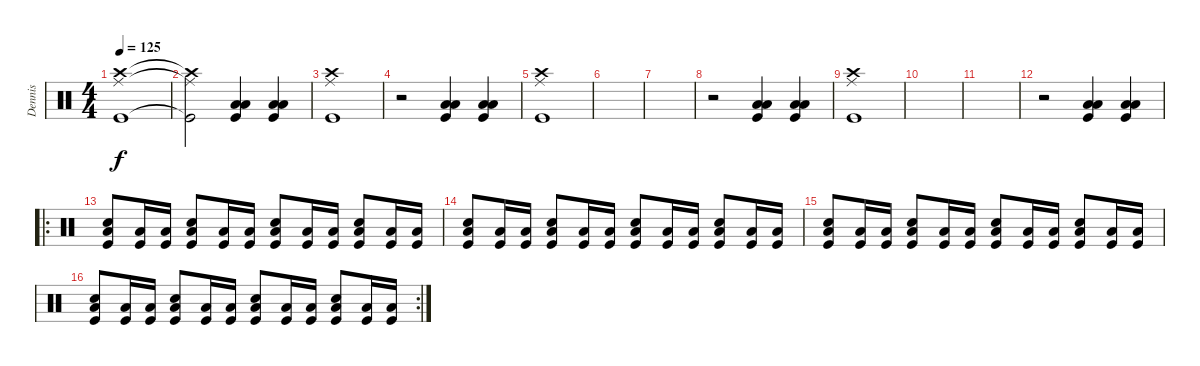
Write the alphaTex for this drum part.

\track ("Dennis" "Dennis") {instrument percussion}
\staff {score}
\articulation defaults
\ts (4 4)
\tempo 125
\clef neutral
\ks c
("Kick (hit)" "Crash high (hit)" "Ride (middle)").1{dy f} |
("Kick (hit)"{t} "Crash high (hit)"{t} "Ride (middle)"{t}).2 ("Kick (hit)" "Low Floor Tom (hit)" "Low Tom (hit)").4 ("Kick (hit)" "Low Floor Tom (hit)" "Low Tom (hit)").4 |
("Kick (hit)" "Crash high (hit)" "Ride (middle)").1 |
r.2 ("Kick (hit)" "Low Floor Tom (hit)" "Low Tom (hit)").4 ("Kick (hit)" "Low Floor Tom (hit)" "Low Tom (hit)").4 |
("Kick (hit)" "Crash high (hit)" "Ride (middle)").1 |
|
|
r.2 ("Kick (hit)" "Low Floor Tom (hit)" "Low Tom (hit)").4 ("Kick (hit)" "Low Floor Tom (hit)" "Low Tom (hit)").4 |
("Kick (hit)" "Crash high (hit)" "Ride (middle)").1 |
|
|
r.2 ("Kick (hit)" "Low Floor Tom (hit)" "Low Tom (hit)").4 ("Kick (hit)" "Low Floor Tom (hit)" "Low Tom (hit)").4 |
\ro
("Kick (hit)" "Low Floor Tom (hit)" "Electric Snare (hit)").8 ("Kick (hit)" "Low Floor Tom (hit)").16 ("Kick (hit)" "Low Floor Tom (hit)").16 ("Kick (hit)" "Low Floor Tom (hit)" "Electric Snare (hit)").8 ("Kick (hit)" "Low Floor Tom (hit)").16 ("Kick (hit)" "Low Floor Tom (hit)").16 ("Kick (hit)" "Low Floor Tom (hit)" "Electric Snare (hit)").8 ("Kick (hit)" "Low Floor Tom (hit)").16 ("Kick (hit)" "Low Floor Tom (hit)").16 ("Kick (hit)" "Low Floor Tom (hit)" "Electric Snare (hit)").8 ("Kick (hit)" "Low Floor Tom (hit)").16 ("Kick (hit)" "Low Floor Tom (hit)").16 |
("Kick (hit)" "Low Floor Tom (hit)" "Electric Snare (hit)").8 ("Kick (hit)" "Low Floor Tom (hit)").16 ("Kick (hit)" "Low Floor Tom (hit)").16 ("Kick (hit)" "Low Floor Tom (hit)" "Electric Snare (hit)").8 ("Kick (hit)" "Low Floor Tom (hit)").16 ("Kick (hit)" "Low Floor Tom (hit)").16 ("Kick (hit)" "Low Floor Tom (hit)" "Electric Snare (hit)").8 ("Kick (hit)" "Low Floor Tom (hit)").16 ("Kick (hit)" "Low Floor Tom (hit)").16 ("Kick (hit)" "Low Floor Tom (hit)" "Electric Snare (hit)").8 ("Kick (hit)" "Low Floor Tom (hit)").16 ("Kick (hit)" "Low Floor Tom (hit)").16 |
("Kick (hit)" "Low Floor Tom (hit)" "Electric Snare (hit)").8 ("Kick (hit)" "Low Floor Tom (hit)").16 ("Kick (hit)" "Low Floor Tom (hit)").16 ("Kick (hit)" "Low Floor Tom (hit)" "Electric Snare (hit)").8 ("Kick (hit)" "Low Floor Tom (hit)").16 ("Kick (hit)" "Low Floor Tom (hit)").16 ("Kick (hit)" "Low Floor Tom (hit)" "Electric Snare (hit)").8 ("Kick (hit)" "Low Floor Tom (hit)").16 ("Kick (hit)" "Low Floor Tom (hit)").16 ("Kick (hit)" "Low Floor Tom (hit)" "Electric Snare (hit)").8 ("Kick (hit)" "Low Floor Tom (hit)").16 ("Kick (hit)" "Low Floor Tom (hit)").16 |
\rc 2
("Kick (hit)" "Low Floor Tom (hit)" "Electric Snare (hit)").8 ("Kick (hit)" "Low Floor Tom (hit)").16 ("Kick (hit)" "Low Floor Tom (hit)").16 ("Kick (hit)" "Low Floor Tom (hit)" "Electric Snare (hit)").8 ("Kick (hit)" "Low Floor Tom (hit)").16 ("Kick (hit)" "Low Floor Tom (hit)").16 ("Kick (hit)" "Low Floor Tom (hit)" "Electric Snare (hit)").8 ("Kick (hit)" "Low Floor Tom (hit)").16 ("Kick (hit)" "Low Floor Tom (hit)").16 ("Kick (hit)" "Low Floor Tom (hit)" "Electric Snare (hit)").8 ("Kick (hit)" "Low Floor Tom (hit)").16 ("Kick (hit)" "Low Floor Tom (hit)").16
